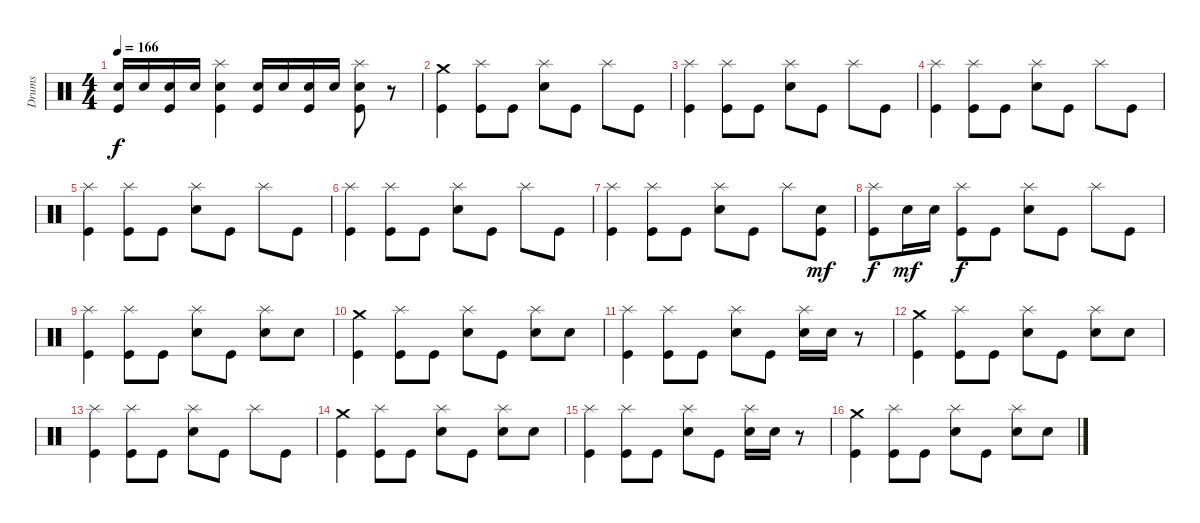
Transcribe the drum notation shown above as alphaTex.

\track ("Drums" "Drums") {instrument percussion}
\staff {score}
\articulation defaults
\ts (4 4)
\tempo 166
\clef neutral
\ks c
("Electric Snare (hit)" "Kick (hit)").16{dy f} "Electric Snare (hit)".16 ("Electric Snare (hit)" "Kick (hit)").16 "Electric Snare (hit)".16 ("Splash (hit)" "Electric Snare (hit)" "Kick (hit)").4 ("Electric Snare (hit)" "Kick (hit)").16 "Electric Snare (hit)".16 ("Electric Snare (hit)" "Kick (hit)").16 "Electric Snare (hit)".16 ("Splash (hit)" "Electric Snare (hit)" "Kick (hit)").8 r.8 |
("Crash medium (hit)" "Kick (hit)").4 ("Splash (hit)" "Kick (hit)").8 "Kick (hit)".8 ("Splash (hit)" "Electric Snare (hit)").8 "Kick (hit)".8 "Splash (hit)".8 "Kick (hit)".8 |
("Splash (hit)" "Kick (hit)").4 ("Splash (hit)" "Kick (hit)").8 "Kick (hit)".8 ("Splash (hit)" "Electric Snare (hit)").8 "Kick (hit)".8 "Splash (hit)".8 "Kick (hit)".8 |
("Splash (hit)" "Kick (hit)").4 ("Splash (hit)" "Kick (hit)").8 "Kick (hit)".8 ("Splash (hit)" "Electric Snare (hit)").8 "Kick (hit)".8 "Splash (hit)".8 "Kick (hit)".8 |
("Splash (hit)" "Kick (hit)").4 ("Splash (hit)" "Kick (hit)").8 "Kick (hit)".8 ("Splash (hit)" "Electric Snare (hit)").8 "Kick (hit)".8 "Splash (hit)".8 "Kick (hit)".8 |
("Splash (hit)" "Kick (hit)").4 ("Splash (hit)" "Kick (hit)").8 "Kick (hit)".8 ("Splash (hit)" "Electric Snare (hit)").8 "Kick (hit)".8 "Splash (hit)".8 "Kick (hit)".8 |
("Splash (hit)" "Kick (hit)").4 ("Splash (hit)" "Kick (hit)").8 "Kick (hit)".8 ("Splash (hit)" "Electric Snare (hit)").8 "Kick (hit)".8 "Splash (hit)".8 ("Electric Snare (hit)" "Kick (hit)").8{dy mf} |
("Splash (hit)" "Kick (hit)").8{dy f} "Electric Snare (hit)".16{dy mf} "Electric Snare (hit)".16 ("Splash (hit)" "Kick (hit)").8{dy f} "Kick (hit)".8 ("Splash (hit)" "Electric Snare (hit)").8 "Kick (hit)".8 "Splash (hit)".8 "Kick (hit)".8 |
("Splash (hit)" "Kick (hit)").4 ("Splash (hit)" "Kick (hit)").8 "Kick (hit)".8 ("Splash (hit)" "Electric Snare (hit)").8 "Kick (hit)".8 ("Splash (hit)" "Electric Snare (hit)").8 "Electric Snare (hit)".8 |
("Crash medium (hit)" "Kick (hit)").4 ("Splash (hit)" "Kick (hit)").8 "Kick (hit)".8 ("Splash (hit)" "Electric Snare (hit)").8 "Kick (hit)".8 ("Splash (hit)" "Electric Snare (hit)").8 "Electric Snare (hit)".8 |
("Splash (hit)" "Kick (hit)").4 ("Splash (hit)" "Kick (hit)").8 "Kick (hit)".8 ("Splash (hit)" "Electric Snare (hit)").8 "Kick (hit)".8 ("Splash (hit)" "Electric Snare (hit)").16 "Electric Snare (hit)".16 r.8 |
("Crash medium (hit)" "Kick (hit)").4 ("Splash (hit)" "Kick (hit)").8 "Kick (hit)".8 ("Splash (hit)" "Electric Snare (hit)").8 "Kick (hit)".8 ("Splash (hit)" "Electric Snare (hit)").8 "Electric Snare (hit)".8 |
("Splash (hit)" "Kick (hit)").4 ("Splash (hit)" "Kick (hit)").8 "Kick (hit)".8 ("Splash (hit)" "Electric Snare (hit)").8 "Kick (hit)".8 "Splash (hit)".8 "Kick (hit)".8 |
("Crash medium (hit)" "Kick (hit)").4 ("Splash (hit)" "Kick (hit)").8 "Kick (hit)".8 ("Splash (hit)" "Electric Snare (hit)").8 "Kick (hit)".8 ("Splash (hit)" "Electric Snare (hit)").8 "Electric Snare (hit)".8 |
("Splash (hit)" "Kick (hit)").4 ("Splash (hit)" "Kick (hit)").8 "Kick (hit)".8 ("Splash (hit)" "Electric Snare (hit)").8 "Kick (hit)".8 ("Splash (hit)" "Electric Snare (hit)").16 "Electric Snare (hit)".16 r.8 |
("Crash medium (hit)" "Kick (hit)").4 ("Splash (hit)" "Kick (hit)").8 "Kick (hit)".8 ("Splash (hit)" "Electric Snare (hit)").8 "Kick (hit)".8 ("Splash (hit)" "Electric Snare (hit)").8 "Electric Snare (hit)".8
